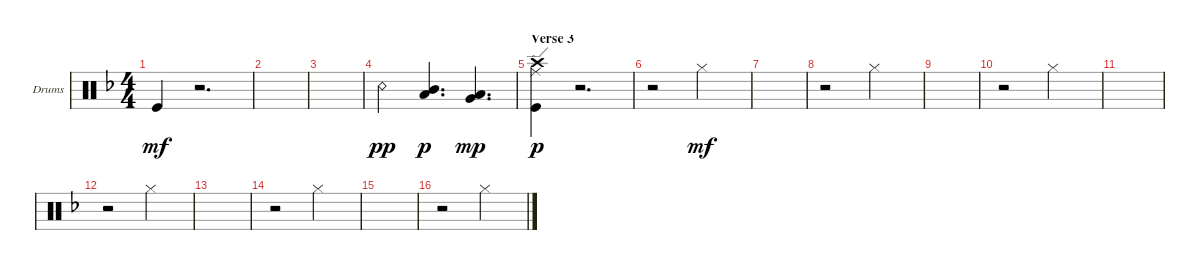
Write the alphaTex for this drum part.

\bracketExtendMode groupsimilarinstruments
\firstSystemTrackNameOrientation horizontal
\otherSystemsTrackNameOrientation horizontal
\track ("Drumkit" "Drums") {instrument percussion}
\staff {score}
\articulation defaults
\ts (4 4)
\tempo (125 hide)
\clef neutral
\scale
0.333333
\ks dminor "Kick (hit)".4{dy mf}
r.2{d} |
\scale
0.333333 |
\scale
0.333333 |
\scale
0.333333 "Snare (rim shot)".4{dy pp} ("Mid Tom (hit)" "Low Tom (hit)").4{d dy p} ("Very Low Tom (hit)" "Low Tom (hit)").4{d dy mp} |
\section ("" "Verse 3")
\scale
0.333333 ("Ride (edge)" "Kick (hit)" "Crash high (hit)").4{dy p} r.2{d} |
\scale
0.333333 r.2 "Hi-Hat (closed)".2{dy mf} |
\scale
0.333333 |
\scale
0.333333 r.2 "Hi-Hat (closed)".2 |
\scale
0.333333 |
\scale
0.333333 r.2 "Hi-Hat (closed)".2 |
\scale
0.333333 |
\scale
0.333333 r.2 "Hi-Hat (closed)".2 |
\scale
0.333333 |
\scale
0.333333 r.2 "Hi-Hat (closed)".2 |
\scale
0.333333 |
\scale
0.333333 r.2 "Hi-Hat (closed)".2
